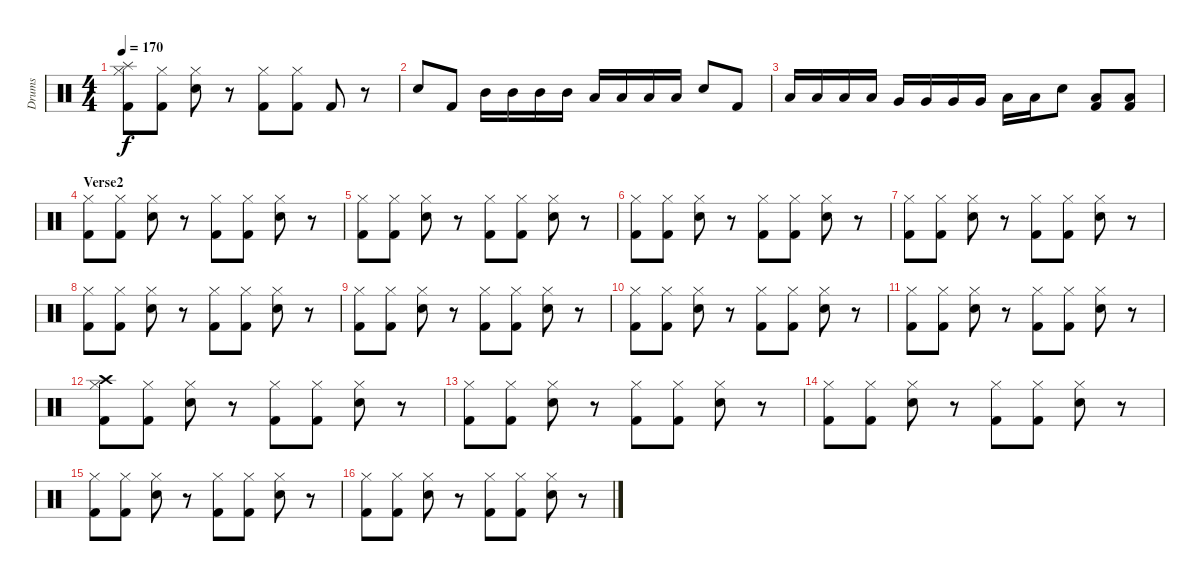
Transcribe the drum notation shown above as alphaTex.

\track ("Drums" "Drums") {instrument percussion}
\staff {score}
\articulation defaults
\ts (4 4)
\section ("" "")
\tempo 170
\clef neutral
\ks c
("Splash (hit)" "Hi-Hat (closed)" "Kick (hit) 2").8{dy f} ("Hi-Hat (closed)" "Kick (hit) 2").8 ("Hi-Hat (closed)" "Snare (hit) 2").8 r.8 ("Hi-Hat (closed)" "Kick (hit) 2").8 ("Hi-Hat (closed)" "Kick (hit) 2").8 "Kick (hit) 2".8 r.8 |
"Snare (hit) 2".8 "Kick (hit) 2".8 "Mid Tom (hit)".16 "Mid Tom (hit)".16 "Mid Tom (hit)".16 "Mid Tom (hit)".16 "Low Tom (hit)".16 "Low Tom (hit)".16 "Low Tom (hit)".16 "Low Tom (hit)".16 "Snare (hit) 2".8 "Kick (hit) 2".8 |
"Low Tom (hit)".16 "Low Tom (hit)".16 "Low Tom (hit)".16 "Low Tom (hit)".16 "Very Low Tom (hit)".16 "Very Low Tom (hit)".16 "Very Low Tom (hit)".16 "Very Low Tom (hit)".16 "Low Floor Tom (hit)".16 "Low Floor Tom (hit)".16 "Snare (hit) 2".8 ("Low Tom (hit)" "Kick (hit) 2").8 ("Low Tom (hit)" "Kick (hit) 2").8 |
\section ("" "Verse2")
("Hi-Hat (closed)" "Kick (hit) 2").8 ("Hi-Hat (closed)" "Kick (hit) 2").8 ("Hi-Hat (closed)" "Snare (hit) 2").8 r.8 ("Hi-Hat (closed)" "Kick (hit) 2").8 ("Hi-Hat (closed)" "Kick (hit) 2").8 ("Hi-Hat (closed)" "Snare (hit) 2").8 r.8 |
("Hi-Hat (closed)" "Kick (hit) 2").8 ("Hi-Hat (closed)" "Kick (hit) 2").8 ("Hi-Hat (closed)" "Snare (hit) 2").8 r.8 ("Hi-Hat (closed)" "Kick (hit) 2").8 ("Hi-Hat (closed)" "Kick (hit) 2").8 ("Hi-Hat (closed)" "Snare (hit) 2").8 r.8 |
("Hi-Hat (closed)" "Kick (hit) 2").8 ("Hi-Hat (closed)" "Kick (hit) 2").8 ("Hi-Hat (closed)" "Snare (hit) 2").8 r.8 ("Hi-Hat (closed)" "Kick (hit) 2").8 ("Hi-Hat (closed)" "Kick (hit) 2").8 ("Hi-Hat (closed)" "Snare (hit) 2").8 r.8 |
("Hi-Hat (closed)" "Kick (hit) 2").8 ("Hi-Hat (closed)" "Kick (hit) 2").8 ("Hi-Hat (closed)" "Snare (hit) 2").8 r.8 ("Hi-Hat (closed)" "Kick (hit) 2").8 ("Hi-Hat (closed)" "Kick (hit) 2").8 ("Hi-Hat (closed)" "Snare (hit) 2").8 r.8 |
("Hi-Hat (closed)" "Kick (hit) 2").8 ("Hi-Hat (closed)" "Kick (hit) 2").8 ("Hi-Hat (closed)" "Snare (hit) 2").8 r.8 ("Hi-Hat (closed)" "Kick (hit) 2").8 ("Hi-Hat (closed)" "Kick (hit) 2").8 ("Hi-Hat (closed)" "Snare (hit) 2").8 r.8 |
("Hi-Hat (closed)" "Kick (hit) 2").8 ("Hi-Hat (closed)" "Kick (hit) 2").8 ("Hi-Hat (closed)" "Snare (hit) 2").8 r.8 ("Hi-Hat (closed)" "Kick (hit) 2").8 ("Hi-Hat (closed)" "Kick (hit) 2").8 ("Hi-Hat (closed)" "Snare (hit) 2").8 r.8 |
("Hi-Hat (closed)" "Kick (hit) 2").8 ("Hi-Hat (closed)" "Kick (hit) 2").8 ("Hi-Hat (closed)" "Snare (hit) 2").8 r.8 ("Hi-Hat (closed)" "Kick (hit) 2").8 ("Hi-Hat (closed)" "Kick (hit) 2").8 ("Hi-Hat (closed)" "Snare (hit) 2").8 r.8 |
("Hi-Hat (closed)" "Kick (hit) 2").8 ("Hi-Hat (closed)" "Kick (hit) 2").8 ("Hi-Hat (closed)" "Snare (hit) 2").8 r.8 ("Hi-Hat (closed)" "Kick (hit) 2").8 ("Hi-Hat (closed)" "Kick (hit) 2").8 ("Hi-Hat (closed)" "Snare (hit) 2").8 r.8 |
("Crash high (hit)" "Hi-Hat (closed)" "Kick (hit) 2").8 ("Hi-Hat (closed)" "Kick (hit) 2").8 ("Hi-Hat (closed)" "Snare (hit) 2").8 r.8 ("Hi-Hat (closed)" "Kick (hit) 2").8 ("Hi-Hat (closed)" "Kick (hit) 2").8 ("Hi-Hat (closed)" "Snare (hit) 2").8 r.8 |
("Hi-Hat (closed)" "Kick (hit) 2").8 ("Hi-Hat (closed)" "Kick (hit) 2").8 ("Hi-Hat (closed)" "Snare (hit) 2").8 r.8 ("Hi-Hat (closed)" "Kick (hit) 2").8 ("Hi-Hat (closed)" "Kick (hit) 2").8 ("Hi-Hat (closed)" "Snare (hit) 2").8 r.8 |
("Hi-Hat (closed)" "Kick (hit) 2").8 ("Hi-Hat (closed)" "Kick (hit) 2").8 ("Hi-Hat (closed)" "Snare (hit) 2").8 r.8 ("Hi-Hat (closed)" "Kick (hit) 2").8 ("Hi-Hat (closed)" "Kick (hit) 2").8 ("Hi-Hat (closed)" "Snare (hit) 2").8 r.8 |
("Hi-Hat (closed)" "Kick (hit) 2").8 ("Hi-Hat (closed)" "Kick (hit) 2").8 ("Hi-Hat (closed)" "Snare (hit) 2").8 r.8 ("Hi-Hat (closed)" "Kick (hit) 2").8 ("Hi-Hat (closed)" "Kick (hit) 2").8 ("Hi-Hat (closed)" "Snare (hit) 2").8 r.8 |
("Hi-Hat (closed)" "Kick (hit) 2").8 ("Hi-Hat (closed)" "Kick (hit) 2").8 ("Hi-Hat (closed)" "Snare (hit) 2").8 r.8 ("Hi-Hat (closed)" "Kick (hit) 2").8 ("Hi-Hat (closed)" "Kick (hit) 2").8 ("Hi-Hat (closed)" "Snare (hit) 2").8 r.8
